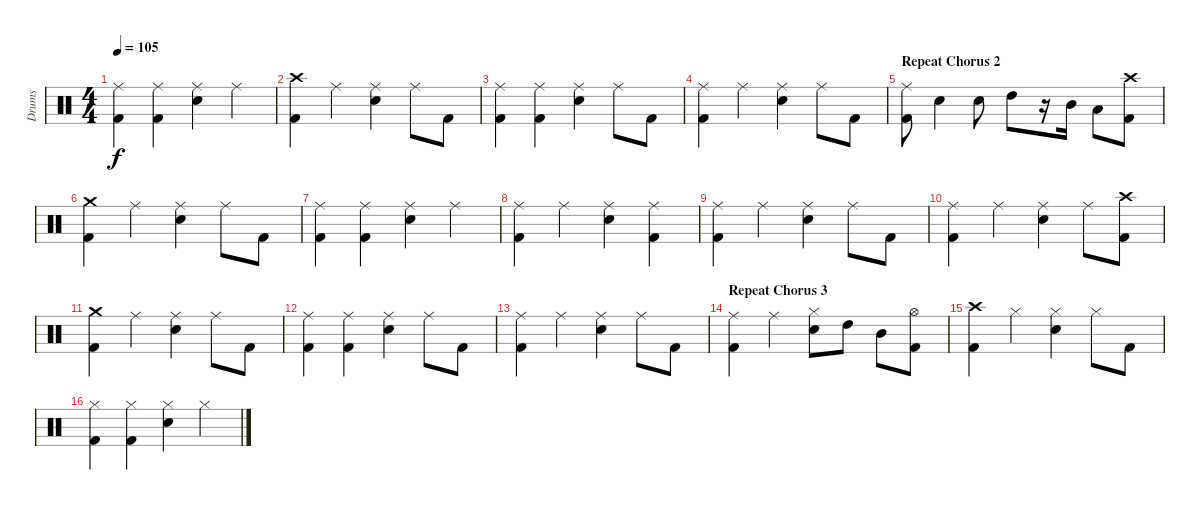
\track ("Drums" "Drums") {instrument percussion}
\staff {score}
\articulation defaults
\ts (4 4)
\tempo 105
\clef neutral
\ks c
("Ride (middle)" "Kick (hit) 2").4{dy f} ("Ride (middle)" "Kick (hit) 2").4 ("Ride (middle)" "Snare (hit) 2").4 "Ride (middle)".4 |
("Crash high (hit)" "Kick (hit) 2").4 "Ride (middle)".4 ("Ride (middle)" "Snare (hit) 2").4 "Ride (middle)".8 "Kick (hit) 2".8 |
("Ride (middle)" "Kick (hit) 2").4 ("Ride (middle)" "Kick (hit) 2").4 ("Ride (middle)" "Snare (hit) 2").4 "Ride (middle)".8 "Kick (hit) 2".8 |
("Ride (middle)" "Kick (hit) 2").4 "Ride (middle)".4 ("Ride (middle)" "Snare (hit) 2").4 "Ride (middle)".8 "Kick (hit) 2".8 |
\section ("" "Repeat Chorus 2")
("Ride (middle)" "Kick (hit) 2").8 "Snare (hit) 2".4 "Snare (hit) 2".8 "High Tom (hit)".8 r.16 "Mid Tom (hit)".16 "Low Tom (hit)".8 ("Crash high (hit)" "Kick (hit) 2").8 |
("Crash medium (hit)" "Kick (hit) 2").4 "Ride (middle)".4 ("Ride (middle)" "Snare (hit) 2").4 "Ride (middle)".8 "Kick (hit) 2".8 |
("Ride (middle)" "Kick (hit) 2").4 ("Ride (middle)" "Kick (hit) 2").4 ("Ride (middle)" "Snare (hit) 2").4 "Ride (middle)".4 |
("Ride (middle)" "Kick (hit) 2").4 "Ride (middle)".4 ("Ride (middle)" "Snare (hit) 2").4 ("Ride (middle)" "Kick (hit) 2").4 |
("Ride (middle)" "Kick (hit) 2").4 "Ride (middle)".4 ("Ride (middle)" "Snare (hit) 2").4 "Ride (middle)".8 "Kick (hit) 2".8 |
("Ride (middle)" "Kick (hit) 2").4 "Ride (middle)".4 ("Ride (middle)" "Snare (hit) 2").4 "Ride (middle)".8 ("Crash high (hit)" "Kick (hit) 2").8 |
("Crash medium (hit)" "Kick (hit) 2").4 "Ride (middle)".4 ("Ride (middle)" "Snare (hit) 2").4 "Ride (middle)".8 "Kick (hit) 2".8 |
("Ride (middle)" "Kick (hit) 2").4 ("Ride (middle)" "Kick (hit) 2").4 ("Ride (middle)" "Snare (hit) 2").4 "Ride (middle)".8 "Kick (hit) 2".8 |
("Ride (middle)" "Kick (hit) 2").4 "Ride (middle)".4 ("Ride (middle)" "Snare (hit) 2").4 "Ride (middle)".8 "Kick (hit) 2".8 |
\section ("" "Repeat Chorus 3")
("Ride (middle)" "Kick (hit) 2").4 "Ride (middle)".4 ("Hi-Hat (closed)" "Snare (hit) 2").8 "High Tom (hit)".8 "Mid Tom (hit)".8 ("Hi-Hat (open)" "Kick (hit) 2").8 |
("Crash high (hit)" "Kick (hit) 2").4 "Hi-Hat (closed)".4 ("Hi-Hat (closed)" "Snare (hit) 2").4 "Hi-Hat (closed)".8 "Kick (hit) 2".8 |
("Hi-Hat (closed)" "Kick (hit) 2").4 ("Hi-Hat (closed)" "Kick (hit) 2").4 ("Hi-Hat (closed)" "Snare (hit) 2").4 "Hi-Hat (closed)".4
